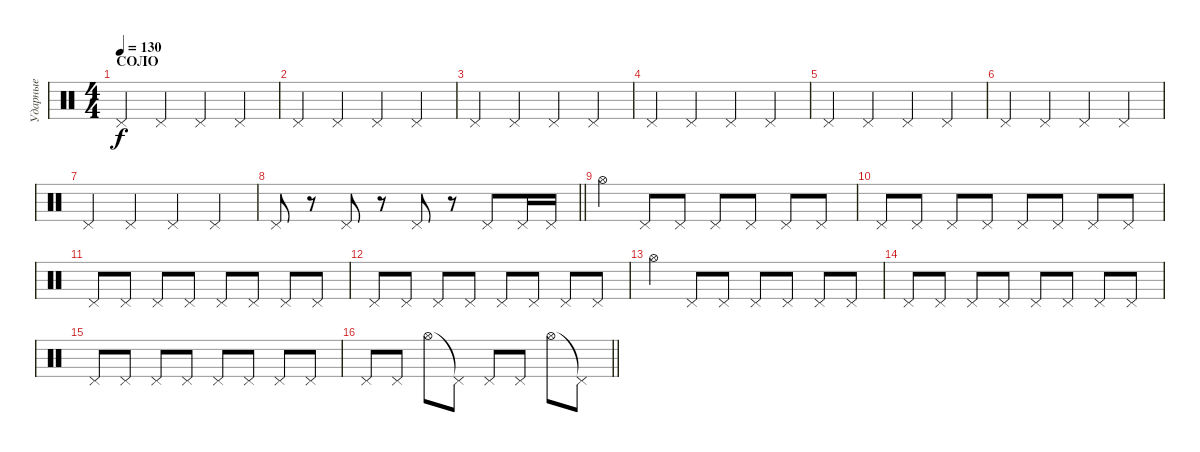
\track ("Ударные" "Ударные") {instrument percussion}
\staff {score}
\articulation defaults
\ts (4 4)
\section ("" "СОЛО")
\tempo 130
\clef neutral
\ks c "Pedal Hi-Hat (hit)".4{dy f} "Pedal Hi-Hat (hit)".4 "Pedal Hi-Hat (hit)".4 "Pedal Hi-Hat (hit)".4
|
"Pedal Hi-Hat (hit)".4 "Pedal Hi-Hat (hit)".4 "Pedal Hi-Hat (hit)".4 "Pedal Hi-Hat (hit)".4 |
"Pedal Hi-Hat (hit)".4 "Pedal Hi-Hat (hit)".4 "Pedal Hi-Hat (hit)".4 "Pedal Hi-Hat (hit)".4 |
"Pedal Hi-Hat (hit)".4 "Pedal Hi-Hat (hit)".4 "Pedal Hi-Hat (hit)".4 "Pedal Hi-Hat (hit)".4 |
"Pedal Hi-Hat (hit)".4 "Pedal Hi-Hat (hit)".4 "Pedal Hi-Hat (hit)".4 "Pedal Hi-Hat (hit)".4 |
"Pedal Hi-Hat (hit)".4 "Pedal Hi-Hat (hit)".4 "Pedal Hi-Hat (hit)".4 "Pedal Hi-Hat (hit)".4 |
"Pedal Hi-Hat (hit)".4 "Pedal Hi-Hat (hit)".4 "Pedal Hi-Hat (hit)".4 "Pedal Hi-Hat (hit)".4 |
\barLineRight lightlight "Pedal Hi-Hat (hit)".8
r.8 "Pedal Hi-Hat (hit)".8 r.8 "Pedal Hi-Hat (hit)".8 r.8 "Pedal Hi-Hat (hit)".8 "Pedal Hi-Hat (hit)".16 "Pedal Hi-Hat (hit)".16 |
"Hi-Hat (open)".4 "Pedal Hi-Hat (hit)".8 "Pedal Hi-Hat (hit)".8 "Pedal Hi-Hat (hit)".8 "Pedal Hi-Hat (hit)".8 "Pedal Hi-Hat (hit)".8 "Pedal Hi-Hat (hit)".8 |
"Pedal Hi-Hat (hit)".8 "Pedal Hi-Hat (hit)".8 "Pedal Hi-Hat (hit)".8 "Pedal Hi-Hat (hit)".8 "Pedal Hi-Hat (hit)".8 "Pedal Hi-Hat (hit)".8 "Pedal Hi-Hat (hit)".8 "Pedal Hi-Hat (hit)".8 |
"Pedal Hi-Hat (hit)".8 "Pedal Hi-Hat (hit)".8 "Pedal Hi-Hat (hit)".8 "Pedal Hi-Hat (hit)".8 "Pedal Hi-Hat (hit)".8 "Pedal Hi-Hat (hit)".8 "Pedal Hi-Hat (hit)".8 "Pedal Hi-Hat (hit)".8 |
"Pedal Hi-Hat (hit)".8 "Pedal Hi-Hat (hit)".8 "Pedal Hi-Hat (hit)".8 "Pedal Hi-Hat (hit)".8 "Pedal Hi-Hat (hit)".8 "Pedal Hi-Hat (hit)".8 "Pedal Hi-Hat (hit)".8 "Pedal Hi-Hat (hit)".8 |
"Hi-Hat (open)".4 "Pedal Hi-Hat (hit)".8 "Pedal Hi-Hat (hit)".8 "Pedal Hi-Hat (hit)".8 "Pedal Hi-Hat (hit)".8 "Pedal Hi-Hat (hit)".8 "Pedal Hi-Hat (hit)".8 |
"Pedal Hi-Hat (hit)".8 "Pedal Hi-Hat (hit)".8 "Pedal Hi-Hat (hit)".8 "Pedal Hi-Hat (hit)".8 "Pedal Hi-Hat (hit)".8 "Pedal Hi-Hat (hit)".8 "Pedal Hi-Hat (hit)".8 "Pedal Hi-Hat (hit)".8 |
"Pedal Hi-Hat (hit)".8 "Pedal Hi-Hat (hit)".8 "Pedal Hi-Hat (hit)".8 "Pedal Hi-Hat (hit)".8 "Pedal Hi-Hat (hit)".8 "Pedal Hi-Hat (hit)".8 "Pedal Hi-Hat (hit)".8 "Pedal Hi-Hat (hit)".8 |
\barLineRight lightlight "Pedal Hi-Hat (hit)".8 "Pedal Hi-Hat (hit)".8 "Hi-Hat (open)".8 "Pedal Hi-Hat (hit)"{t}.8 "Pedal Hi-Hat (hit)".8 "Pedal Hi-Hat (hit)".8 "Hi-Hat (open)".8 "Pedal Hi-Hat (hit)"{t}.8
